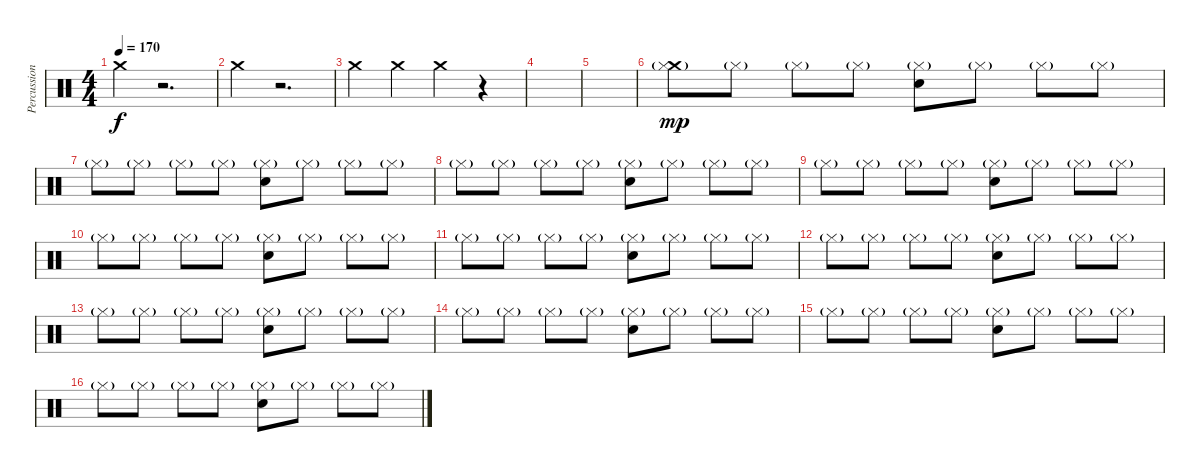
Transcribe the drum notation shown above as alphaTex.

\track ("Percussion" "Percussion") {instrument percussion}
\staff {score}
\articulation defaults
\ts (4 4)
\tempo 170
\clef neutral
\ks c "Crash medium (hit)".4{dy f}
r.2{d} |
"Crash medium (hit)".4 r.2{d} |
"Crash medium (hit)".4 "Crash medium (hit)".4 "Crash medium (hit)".4 r.4 |
|
|
("Crash medium (hit)" "Hi-Hat (closed)"{g}).8{dy mp} "Hi-Hat (closed)"{g}.8 "Hi-Hat (closed)"{g}.8 "Hi-Hat (closed)"{g}.8 ("Hand Clap (hit)" "Hi-Hat (closed)"{g}).8 "Hi-Hat (closed)"{g}.8 "Hi-Hat (closed)"{g}.8 "Hi-Hat (closed)"{g}.8 |
"Hi-Hat (closed)"{g}.8 "Hi-Hat (closed)"{g}.8 "Hi-Hat (closed)"{g}.8 "Hi-Hat (closed)"{g}.8 ("Hand Clap (hit)" "Hi-Hat (closed)"{g}).8 "Hi-Hat (closed)"{g}.8 "Hi-Hat (closed)"{g}.8 "Hi-Hat (closed)"{g}.8 |
"Hi-Hat (closed)"{g}.8 "Hi-Hat (closed)"{g}.8 "Hi-Hat (closed)"{g}.8 "Hi-Hat (closed)"{g}.8 ("Hand Clap (hit)" "Hi-Hat (closed)"{g}).8 "Hi-Hat (closed)"{g}.8 "Hi-Hat (closed)"{g}.8 "Hi-Hat (closed)"{g}.8 |
"Hi-Hat (closed)"{g}.8 "Hi-Hat (closed)"{g}.8 "Hi-Hat (closed)"{g}.8 "Hi-Hat (closed)"{g}.8 ("Hand Clap (hit)" "Hi-Hat (closed)"{g}).8 "Hi-Hat (closed)"{g}.8 "Hi-Hat (closed)"{g}.8 "Hi-Hat (closed)"{g}.8 |
"Hi-Hat (closed)"{g}.8 "Hi-Hat (closed)"{g}.8 "Hi-Hat (closed)"{g}.8 "Hi-Hat (closed)"{g}.8 ("Hand Clap (hit)" "Hi-Hat (closed)"{g}).8 "Hi-Hat (closed)"{g}.8 "Hi-Hat (closed)"{g}.8 "Hi-Hat (closed)"{g}.8 |
"Hi-Hat (closed)"{g}.8 "Hi-Hat (closed)"{g}.8 "Hi-Hat (closed)"{g}.8 "Hi-Hat (closed)"{g}.8 ("Hand Clap (hit)" "Hi-Hat (closed)"{g}).8 "Hi-Hat (closed)"{g}.8 "Hi-Hat (closed)"{g}.8 "Hi-Hat (closed)"{g}.8 |
"Hi-Hat (closed)"{g}.8 "Hi-Hat (closed)"{g}.8 "Hi-Hat (closed)"{g}.8 "Hi-Hat (closed)"{g}.8 ("Hand Clap (hit)" "Hi-Hat (closed)"{g}).8 "Hi-Hat (closed)"{g}.8 "Hi-Hat (closed)"{g}.8 "Hi-Hat (closed)"{g}.8 |
"Hi-Hat (closed)"{g}.8 "Hi-Hat (closed)"{g}.8 "Hi-Hat (closed)"{g}.8 "Hi-Hat (closed)"{g}.8 ("Hand Clap (hit)" "Hi-Hat (closed)"{g}).8 "Hi-Hat (closed)"{g}.8 "Hi-Hat (closed)"{g}.8 "Hi-Hat (closed)"{g}.8 |
"Hi-Hat (closed)"{g}.8 "Hi-Hat (closed)"{g}.8 "Hi-Hat (closed)"{g}.8 "Hi-Hat (closed)"{g}.8 ("Hand Clap (hit)" "Hi-Hat (closed)"{g}).8 "Hi-Hat (closed)"{g}.8 "Hi-Hat (closed)"{g}.8 "Hi-Hat (closed)"{g}.8 |
"Hi-Hat (closed)"{g}.8 "Hi-Hat (closed)"{g}.8 "Hi-Hat (closed)"{g}.8 "Hi-Hat (closed)"{g}.8 ("Hand Clap (hit)" "Hi-Hat (closed)"{g}).8 "Hi-Hat (closed)"{g}.8 "Hi-Hat (closed)"{g}.8 "Hi-Hat (closed)"{g}.8 |
"Hi-Hat (closed)"{g}.8 "Hi-Hat (closed)"{g}.8 "Hi-Hat (closed)"{g}.8 "Hi-Hat (closed)"{g}.8 ("Hand Clap (hit)" "Hi-Hat (closed)"{g}).8 "Hi-Hat (closed)"{g}.8 "Hi-Hat (closed)"{g}.8 "Hi-Hat (closed)"{g}.8
